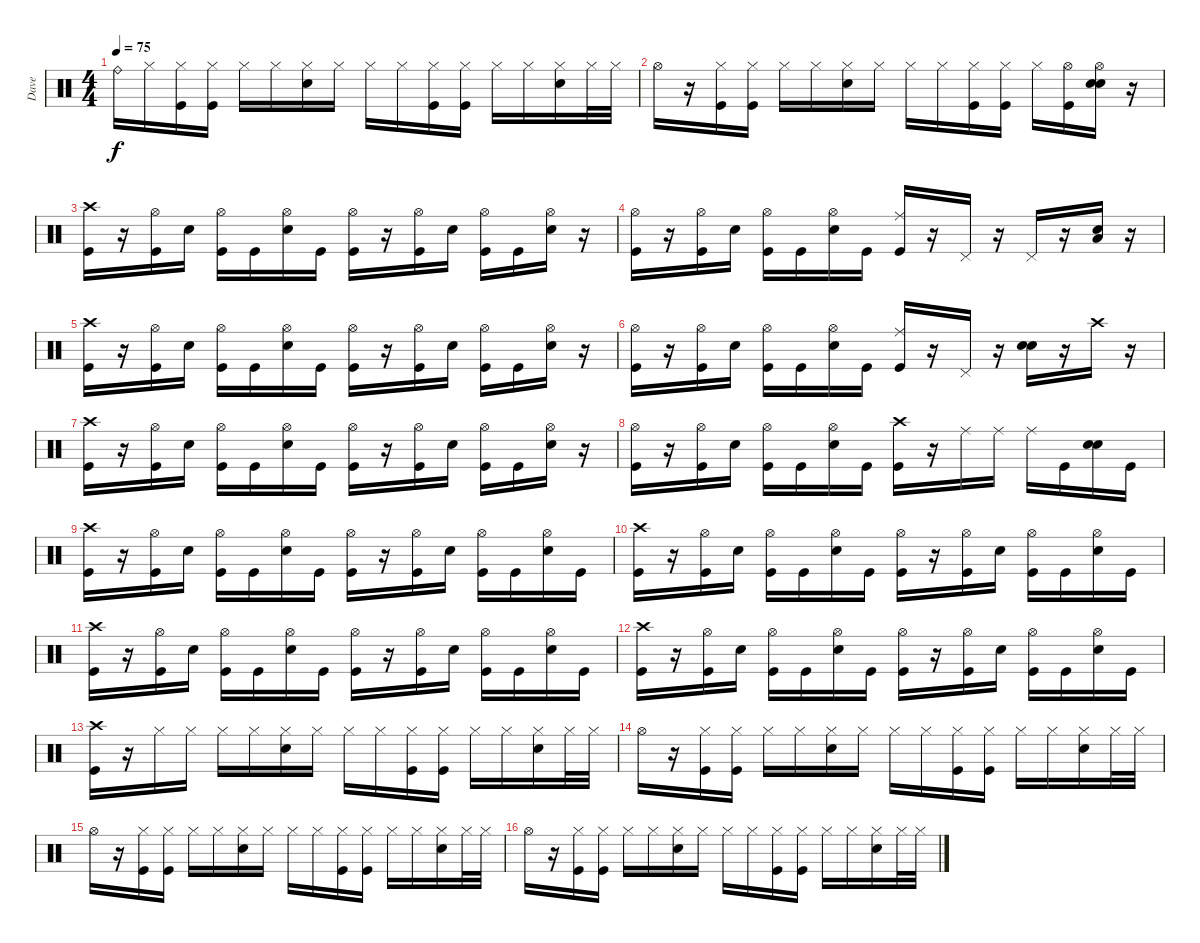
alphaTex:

\track ("Dave" "Dave") {instrument percussion}
\staff {score}
\articulation defaults
\ts (4 4)
\tempo 75
\clef neutral
\ks c "Ride (bell)".16{dy f} "Hi-Hat (closed)".16
("Hi-Hat (closed)" "Kick (hit)").16 ("Hi-Hat (closed)" "Kick (hit)").16 "Hi-Hat (closed)".16 "Hi-Hat (closed)".16 ("Hi-Hat (closed)" "Snare (hit) 2").16 "Hi-Hat (closed)".16 "Hi-Hat (closed)".16 "Hi-Hat (closed)".16 ("Hi-Hat (closed)" "Kick (hit)").16 ("Hi-Hat (closed)" "Kick (hit)").16 "Hi-Hat (closed)".16 "Hi-Hat (closed)".16 ("Hi-Hat (closed)" "Snare (hit) 2").16 "Hi-Hat (closed)".32 "Hi-Hat (closed)".32 |
"Hi-Hat (open)".16 r.16 ("Hi-Hat (closed)" "Kick (hit)").16 ("Hi-Hat (closed)" "Kick (hit)").16 "Hi-Hat (closed)".16 "Hi-Hat (closed)".16 ("Hi-Hat (closed)" "Snare (hit) 2").16 "Hi-Hat (closed)".16 "Hi-Hat (closed)".16 "Hi-Hat (closed)".16 ("Hi-Hat (closed)" "Kick (hit)").16 ("Hi-Hat (closed)" "Kick (hit)").16 "Hi-Hat (closed)".16 ("Hi-Hat (open)" "Kick (hit)").16 ("Hi-Hat (open)" "Snare (hit) 2" "Snare (hit) 2").16 r.16 |
("Crash high (hit)" "Kick (hit)").16 r.16 ("Hi-Hat (open)" "Kick (hit)").16 "Snare (hit) 2".16 ("Hi-Hat (open)" "Kick (hit)").16 "Kick (hit)".16 ("Hi-Hat (open)" "Snare (hit) 2").16 "Kick (hit)".16 ("Hi-Hat (open)" "Kick (hit)").16 r.16 ("Hi-Hat (open)" "Kick (hit)").16 "Snare (hit) 2".16 ("Hi-Hat (open)" "Kick (hit)").16 "Kick (hit)".16 ("Hi-Hat (open)" "Snare (hit) 2").16 r.16 |
("Hi-Hat (open)" "Kick (hit)").16 r.16 ("Hi-Hat (open)" "Kick (hit)").16 "Snare (hit) 2".16 ("Hi-Hat (open)" "Kick (hit)").16 "Kick (hit)".16 ("Hi-Hat (open)" "Snare (hit) 2").16 "Kick (hit)".16 ("Ride (middle)" "Kick (hit)").16 r.16 "Pedal Hi-Hat (hit)".16 r.16 "Pedal Hi-Hat (hit)".16 r.16 ("Snare (hit) 2" "Low Floor Tom (hit)").16 r.16 |
("Crash high (hit)" "Kick (hit)").16 r.16 ("Hi-Hat (open)" "Kick (hit)").16 "Snare (hit) 2".16 ("Hi-Hat (open)" "Kick (hit)").16 "Kick (hit)".16 ("Hi-Hat (open)" "Snare (hit) 2").16 "Kick (hit)".16 ("Hi-Hat (open)" "Kick (hit)").16 r.16 ("Hi-Hat (open)" "Kick (hit)").16 "Snare (hit) 2".16 ("Hi-Hat (open)" "Kick (hit)").16 "Kick (hit)".16 ("Hi-Hat (open)" "Snare (hit) 2").16 r.16 |
("Hi-Hat (open)" "Kick (hit)").16 r.16 ("Hi-Hat (open)" "Kick (hit)").16 "Snare (hit) 2".16 ("Hi-Hat (open)" "Kick (hit)").16 "Kick (hit)".16 ("Hi-Hat (open)" "Snare (hit) 2").16 "Kick (hit)".16 ("Ride (middle)" "Kick (hit)").16 r.16 "Pedal Hi-Hat (hit)".16 r.16 ("Snare (hit) 2" "Snare (hit) 2").16 r.16 "Crash high (hit)".16 r.16 |
("Crash high (hit)" "Kick (hit)").16 r.16 ("Hi-Hat (open)" "Kick (hit)").16 "Snare (hit) 2".16 ("Hi-Hat (open)" "Kick (hit)").16 "Kick (hit)".16 ("Hi-Hat (open)" "Snare (hit) 2").16 "Kick (hit)".16 ("Hi-Hat (open)" "Kick (hit)").16 r.16 ("Hi-Hat (open)" "Kick (hit)").16 "Snare (hit) 2".16 ("Hi-Hat (open)" "Kick (hit)").16 "Kick (hit)".16 ("Hi-Hat (open)" "Snare (hit) 2").16 r.16 |
("Hi-Hat (open)" "Kick (hit)").16 r.16 ("Hi-Hat (open)" "Kick (hit)").16 "Snare (hit) 2".16 ("Hi-Hat (open)" "Kick (hit)").16 "Kick (hit)".16 ("Hi-Hat (open)" "Snare (hit) 2").16 "Kick (hit)".16 ("Crash high (hit)" "Kick (hit)").16 r.16 "Ride (middle)".16 "Ride (middle)".16 "Ride (middle)".16 "Kick (hit)".16 ("Snare (hit) 2" "Snare (hit) 2").16 "Kick (hit)".16 |
("Crash high (hit)" "Kick (hit)").16 r.16 ("Hi-Hat (open)" "Kick (hit)").16 "Snare (hit) 2".16 ("Hi-Hat (open)" "Kick (hit)").16 "Kick (hit)".16 ("Hi-Hat (open)" "Snare (hit) 2").16 "Kick (hit)".16 ("Hi-Hat (open)" "Kick (hit)").16 r.16 ("Hi-Hat (open)" "Kick (hit)").16 "Snare (hit) 2".16 ("Hi-Hat (open)" "Kick (hit)").16 "Kick (hit)".16 ("Hi-Hat (open)" "Snare (hit) 2").16 "Kick (hit)".16 |
("Crash high (hit)" "Kick (hit)").16 r.16 ("Hi-Hat (open)" "Kick (hit)").16 "Snare (hit) 2".16 ("Hi-Hat (open)" "Kick (hit)").16 "Kick (hit)".16 ("Hi-Hat (open)" "Snare (hit) 2").16 "Kick (hit)".16 ("Hi-Hat (open)" "Kick (hit)").16 r.16 ("Hi-Hat (open)" "Kick (hit)").16 "Snare (hit) 2".16 ("Hi-Hat (open)" "Kick (hit)").16 "Kick (hit)".16 ("Hi-Hat (open)" "Snare (hit) 2").16 "Kick (hit)".16 |
("Crash high (hit)" "Kick (hit)").16 r.16 ("Hi-Hat (open)" "Kick (hit)").16 "Snare (hit) 2".16 ("Hi-Hat (open)" "Kick (hit)").16 "Kick (hit)".16 ("Hi-Hat (open)" "Snare (hit) 2").16 "Kick (hit)".16 ("Hi-Hat (open)" "Kick (hit)").16 r.16 ("Hi-Hat (open)" "Kick (hit)").16 "Snare (hit) 2".16 ("Hi-Hat (open)" "Kick (hit)").16 "Kick (hit)".16 ("Hi-Hat (open)" "Snare (hit) 2").16 "Kick (hit)".16 |
("Crash high (hit)" "Kick (hit)").16 r.16 ("Hi-Hat (open)" "Kick (hit)").16 "Snare (hit) 2".16 ("Hi-Hat (open)" "Kick (hit)").16 "Kick (hit)".16 ("Hi-Hat (open)" "Snare (hit) 2").16 "Kick (hit)".16 ("Hi-Hat (open)" "Kick (hit)").16 r.16 ("Hi-Hat (open)" "Kick (hit)").16 "Snare (hit) 2".16 ("Hi-Hat (open)" "Kick (hit)").16 "Kick (hit)".16 ("Hi-Hat (open)" "Snare (hit) 2").16 "Kick (hit)".16 |
("Crash high (hit)" "Kick (hit)").16 r.16 "Hi-Hat (closed)".16 "Hi-Hat (closed)".16 "Hi-Hat (closed)".16 "Hi-Hat (closed)".16 ("Hi-Hat (closed)" "Snare (hit) 2").16 "Hi-Hat (closed)".16 "Hi-Hat (closed)".16 "Hi-Hat (closed)".16 ("Hi-Hat (closed)" "Kick (hit)").16 ("Hi-Hat (closed)" "Kick (hit)").16 "Hi-Hat (closed)".16 "Hi-Hat (closed)".16 ("Hi-Hat (closed)" "Snare (hit) 2").16 "Hi-Hat (closed)".32 "Hi-Hat (closed)".32 |
"Hi-Hat (open)".16 r.16 ("Hi-Hat (closed)" "Kick (hit)").16 ("Hi-Hat (closed)" "Kick (hit)").16 "Hi-Hat (closed)".16 "Hi-Hat (closed)".16 ("Hi-Hat (closed)" "Snare (hit) 2").16 "Hi-Hat (closed)".16 "Hi-Hat (closed)".16 "Hi-Hat (closed)".16 ("Hi-Hat (closed)" "Kick (hit)").16 ("Hi-Hat (closed)" "Kick (hit)").16 "Hi-Hat (closed)".16 "Hi-Hat (closed)".16 ("Hi-Hat (closed)" "Snare (hit) 2").16 "Hi-Hat (closed)".32 "Hi-Hat (closed)".32 |
"Hi-Hat (open)".16 r.16 ("Hi-Hat (closed)" "Kick (hit)").16 ("Hi-Hat (closed)" "Kick (hit)").16 "Hi-Hat (closed)".16 "Hi-Hat (closed)".16 ("Hi-Hat (closed)" "Snare (hit) 2").16 "Hi-Hat (closed)".16 "Hi-Hat (closed)".16 "Hi-Hat (closed)".16 ("Hi-Hat (closed)" "Kick (hit)").16 ("Hi-Hat (closed)" "Kick (hit)").16 "Hi-Hat (closed)".16 "Hi-Hat (closed)".16 ("Hi-Hat (closed)" "Snare (hit) 2").16 "Hi-Hat (closed)".32 "Hi-Hat (closed)".32 |
"Hi-Hat (open)".16 r.16 ("Hi-Hat (closed)" "Kick (hit)").16 ("Hi-Hat (closed)" "Kick (hit)").16 "Hi-Hat (closed)".16 "Hi-Hat (closed)".16 ("Hi-Hat (closed)" "Snare (hit) 2").16 "Hi-Hat (closed)".16 "Hi-Hat (closed)".16 "Hi-Hat (closed)".16 ("Hi-Hat (closed)" "Kick (hit)").16 ("Hi-Hat (closed)" "Kick (hit)").16 "Hi-Hat (closed)".16 "Hi-Hat (closed)".16 ("Hi-Hat (closed)" "Snare (hit) 2").16 "Hi-Hat (closed)".32 "Hi-Hat (closed)".32
